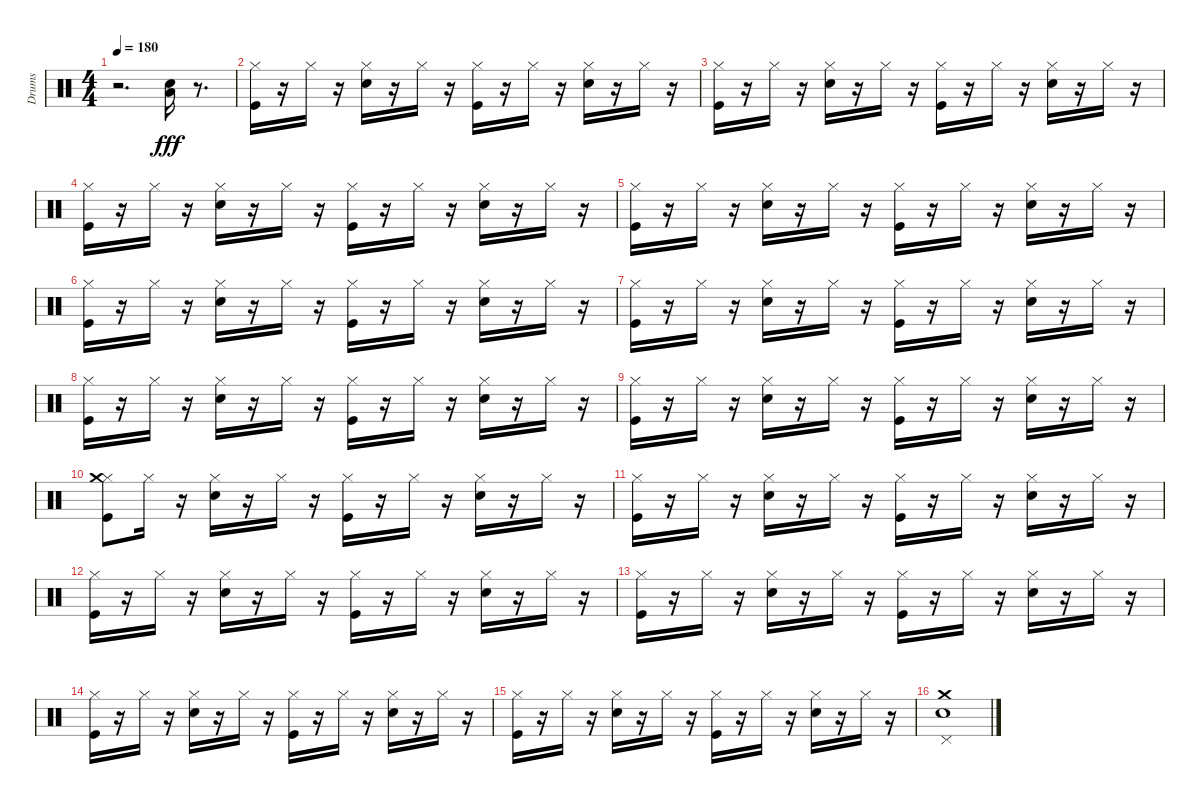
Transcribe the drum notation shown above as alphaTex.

\track ("Drums" "Drums") {instrument percussion}
\staff {score}
\articulation defaults
\ts (4 4)
\tempo 180
\clef neutral
\ks c
r.2{d dy fff} ("Low Floor Tom (hit)" "Electric Snare (hit)").16 r.8{d} |
("Kick (hit)" "Hi-Hat (closed)").16 r.16 "Hi-Hat (closed)".16 r.16 ("Snare (hit) 2" "Hi-Hat (closed)").16 r.16 "Hi-Hat (closed)".16 r.16 ("Kick (hit)" "Hi-Hat (closed)").16 r.16 "Hi-Hat (closed)".16 r.16 ("Snare (hit) 2" "Hi-Hat (closed)").16 r.16 "Hi-Hat (closed)".16 r.16 |
("Hi-Hat (closed)" "Kick (hit)").16 r.16 "Hi-Hat (closed)".16 r.16 ("Hi-Hat (closed)" "Snare (hit) 2").16 r.16 "Hi-Hat (closed)".16 r.16 ("Hi-Hat (closed)" "Kick (hit)").16 r.16 "Hi-Hat (closed)".16 r.16 ("Hi-Hat (closed)" "Snare (hit) 2").16 r.16 "Hi-Hat (closed)".16 r.16 |
("Kick (hit)" "Hi-Hat (closed)").16 r.16 "Hi-Hat (closed)".16 r.16 ("Snare (hit) 2" "Hi-Hat (closed)").16 r.16 "Hi-Hat (closed)".16 r.16 ("Kick (hit)" "Hi-Hat (closed)").16 r.16 "Hi-Hat (closed)".16 r.16 ("Snare (hit) 2" "Hi-Hat (closed)").16 r.16 "Hi-Hat (closed)".16 r.16 |
("Hi-Hat (closed)" "Kick (hit)").16 r.16 "Hi-Hat (closed)".16 r.16 ("Hi-Hat (closed)" "Snare (hit) 2").16 r.16 "Hi-Hat (closed)".16 r.16 ("Hi-Hat (closed)" "Kick (hit)").16 r.16 "Hi-Hat (closed)".16 r.16 ("Hi-Hat (closed)" "Snare (hit) 2").16 r.16 "Hi-Hat (closed)".16 r.16 |
("Kick (hit)" "Hi-Hat (closed)").16 r.16 "Hi-Hat (closed)".16 r.16 ("Snare (hit) 2" "Hi-Hat (closed)").16 r.16 "Hi-Hat (closed)".16 r.16 ("Kick (hit)" "Hi-Hat (closed)").16 r.16 "Hi-Hat (closed)".16 r.16 ("Snare (hit) 2" "Hi-Hat (closed)").16 r.16 "Hi-Hat (closed)".16 r.16 |
("Hi-Hat (closed)" "Kick (hit)").16 r.16 "Hi-Hat (closed)".16 r.16 ("Hi-Hat (closed)" "Snare (hit) 2").16 r.16 "Hi-Hat (closed)".16 r.16 ("Hi-Hat (closed)" "Kick (hit)").16 r.16 "Hi-Hat (closed)".16 r.16 ("Hi-Hat (closed)" "Snare (hit) 2").16 r.16 "Hi-Hat (closed)".16 r.16 |
("Kick (hit)" "Hi-Hat (closed)").16 r.16 "Hi-Hat (closed)".16 r.16 ("Snare (hit) 2" "Hi-Hat (closed)").16 r.16 "Hi-Hat (closed)".16 r.16 ("Kick (hit)" "Hi-Hat (closed)").16 r.16 "Hi-Hat (closed)".16 r.16 ("Snare (hit) 2" "Hi-Hat (closed)").16 r.16 "Hi-Hat (closed)".16 r.16 |
("Hi-Hat (closed)" "Kick (hit)").16 r.16 "Hi-Hat (closed)".16 r.16 ("Hi-Hat (closed)" "Snare (hit) 2").16 r.16 "Hi-Hat (closed)".16 r.16 ("Hi-Hat (closed)" "Kick (hit)").16 r.16 "Hi-Hat (closed)".16 r.16 ("Hi-Hat (closed)" "Snare (hit) 2").16 r.16 "Hi-Hat (closed)".16 r.16 |
("Kick (hit)" "Hi-Hat (closed)" "Crash medium (hit)").8 "Hi-Hat (closed)".16 r.16 ("Snare (hit) 2" "Hi-Hat (closed)").16 r.16 "Hi-Hat (closed)".16 r.16 ("Kick (hit)" "Hi-Hat (closed)").16 r.16 "Hi-Hat (closed)".16 r.16 ("Snare (hit) 2" "Hi-Hat (closed)").16 r.16 "Hi-Hat (closed)".16 r.16 |
("Hi-Hat (closed)" "Kick (hit)").16 r.16 "Hi-Hat (closed)".16 r.16 ("Hi-Hat (closed)" "Snare (hit) 2").16 r.16 "Hi-Hat (closed)".16 r.16 ("Hi-Hat (closed)" "Kick (hit)").16 r.16 "Hi-Hat (closed)".16 r.16 ("Hi-Hat (closed)" "Snare (hit) 2").16 r.16 "Hi-Hat (closed)".16 r.16 |
("Kick (hit)" "Hi-Hat (closed)").16 r.16 "Hi-Hat (closed)".16 r.16 ("Snare (hit) 2" "Hi-Hat (closed)").16 r.16 "Hi-Hat (closed)".16 r.16 ("Kick (hit)" "Hi-Hat (closed)").16 r.16 "Hi-Hat (closed)".16 r.16 ("Snare (hit) 2" "Hi-Hat (closed)").16 r.16 "Hi-Hat (closed)".16 r.16 |
("Hi-Hat (closed)" "Kick (hit)").16 r.16 "Hi-Hat (closed)".16 r.16 ("Hi-Hat (closed)" "Snare (hit) 2").16 r.16 "Hi-Hat (closed)".16 r.16 ("Hi-Hat (closed)" "Kick (hit)").16 r.16 "Hi-Hat (closed)".16 r.16 ("Hi-Hat (closed)" "Snare (hit) 2").16 r.16 "Hi-Hat (closed)".16 r.16 |
("Kick (hit)" "Hi-Hat (closed)").16 r.16 "Hi-Hat (closed)".16 r.16 ("Snare (hit) 2" "Hi-Hat (closed)").16 r.16 "Hi-Hat (closed)".16 r.16 ("Kick (hit)" "Hi-Hat (closed)").16 r.16 "Hi-Hat (closed)".16 r.16 ("Snare (hit) 2" "Hi-Hat (closed)").16 r.16 "Hi-Hat (closed)".16 r.16 |
("Hi-Hat (closed)" "Kick (hit)").16 r.16 "Hi-Hat (closed)".16 r.16 ("Hi-Hat (closed)" "Snare (hit) 2").16 r.16 "Hi-Hat (closed)".16 r.16 ("Hi-Hat (closed)" "Kick (hit)").16 r.16 "Hi-Hat (closed)".16 r.16 ("Hi-Hat (closed)" "Snare (hit) 2").16 r.16 "Hi-Hat (closed)".16 r.16 |
("Snare (hit) 2" "Pedal Hi-Hat (hit)" "Crash medium (hit)").1
